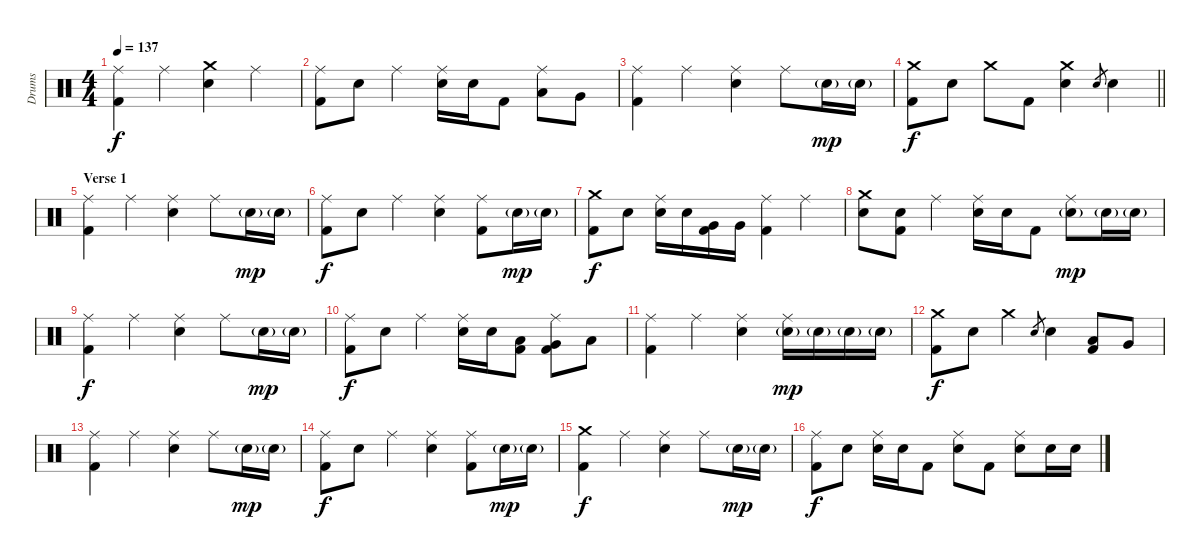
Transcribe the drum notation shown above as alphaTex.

\track ("Drums" "Drums") {instrument percussion}
\staff {score}
\articulation defaults
\ts (4 4)
\tempo 137
\clef neutral
\ks c
("Ride (middle)" "Kick (hit) 2").4{dy f} "Ride (middle)".4 ("Crash medium (hit)" "Electric Snare (hit)").4 "Ride (middle)".4 |
("Ride (middle)" "Kick (hit) 2").8 "Electric Snare (hit)".8 "Ride (middle)".4 ("Ride (middle)" "Electric Snare (hit)").16 "Electric Snare (hit)".16 "Kick (hit) 2".8 ("Ride (middle)" "Low Tom (hit)").8 "Very Low Tom (hit)".8 |
("Ride (middle)" "Kick (hit) 2").4 "Ride (middle)".4 ("Ride (middle)" "Electric Snare (hit)").4 "Ride (middle)".8 "Electric Snare (hit)"{g}.16{dy mp} "Electric Snare (hit)"{g}.16 |
\barLineRight lightlight
("Crash medium (hit)" "Kick (hit) 2").8{dy f} "Electric Snare (hit)".8 "Crash medium (hit)".8 "Kick (hit) 2".8 ("Crash medium (hit)" "Electric Snare (hit)").4 "Electric Snare (hit)".8{gr} "Electric Snare (hit)".4 |
\section ("" "Verse 1")
("Ride (middle)" "Kick (hit) 2").4 "Ride (middle)".4 ("Ride (middle)" "Electric Snare (hit)").4 "Ride (middle)".8 "Electric Snare (hit)"{g}.16{dy mp} "Electric Snare (hit)"{g}.16 |
("Ride (middle)" "Kick (hit) 2").8{dy f} "Electric Snare (hit)".8 "Ride (middle)".4 ("Ride (middle)" "Electric Snare (hit)").4 ("Ride (middle)" "Kick (hit) 2").8 "Electric Snare (hit)"{g}.16{dy mp} "Electric Snare (hit)"{g}.16 |
("Crash medium (hit)" "Kick (hit) 2").8{dy f} "Electric Snare (hit)".8 ("Ride (middle)" "Electric Snare (hit)").16 "Electric Snare (hit)".16 ("Very Low Tom (hit)" "Kick (hit) 2").16 "Very Low Tom (hit)".16 ("Ride (middle)" "Kick (hit) 2").4 "Ride (middle)".4 |
("Crash medium (hit)" "Electric Snare (hit)").8 ("Electric Snare (hit)" "Kick (hit) 2").8 "Ride (middle)".4 ("Ride (middle)" "Electric Snare (hit)").16 "Electric Snare (hit)".16 "Kick (hit) 2".8 ("Ride (middle)" "Electric Snare (hit)"{g}).8{dy mp} "Electric Snare (hit)"{g}.16 "Electric Snare (hit)"{g}.16 |
("Ride (middle)" "Kick (hit) 2").4{dy f} "Ride (middle)".4 ("Ride (middle)" "Electric Snare (hit)").4 "Ride (middle)".8 "Electric Snare (hit)"{g}.16{dy mp} "Electric Snare (hit)"{g}.16 |
("Ride (middle)" "Kick (hit) 2").8{dy f} "Electric Snare (hit)".8 "Ride (middle)".4 ("Ride (middle)" "Electric Snare (hit)").16 "Electric Snare (hit)".16 ("Low Tom (hit)" "Kick (hit) 2").8 ("Ride (middle)" "Very Low Tom (hit)" "Kick (hit) 2").8 "Low Floor Tom (hit)".8 |
("Ride (middle)" "Kick (hit) 2").4 "Ride (middle)".4 ("Ride (middle)" "Electric Snare (hit)").4 ("Ride (middle)" "Electric Snare (hit)"{g}).16{dy mp} "Electric Snare (hit)"{g}.16 "Electric Snare (hit)"{g}.16 "Electric Snare (hit)"{g}.16 |
("Crash medium (hit)" "Kick (hit) 2").8{dy f} "Electric Snare (hit)".8 "Crash medium (hit)".4 "Electric Snare (hit)".8{gr} "Electric Snare (hit)".4 ("Low Tom (hit)" "Kick (hit) 2").8 "Very Low Tom (hit)".8 |
("Ride (middle)" "Kick (hit) 2").4 "Ride (middle)".4 ("Ride (middle)" "Electric Snare (hit)").4 "Ride (middle)".8 "Electric Snare (hit)"{g}.16{dy mp} "Electric Snare (hit)"{g}.16 |
("Ride (middle)" "Kick (hit) 2").8{dy f} "Electric Snare (hit)".8 "Ride (middle)".4 ("Ride (middle)" "Electric Snare (hit)").4 ("Ride (middle)" "Kick (hit) 2").8 "Electric Snare (hit)"{g}.16{dy mp} "Electric Snare (hit)"{g}.16 |
("Crash medium (hit)" "Kick (hit) 2").4{dy f} "Ride (middle)".4 ("Ride (middle)" "Electric Snare (hit)").4 "Ride (middle)".8 "Electric Snare (hit)"{g}.16{dy mp} "Electric Snare (hit)"{g}.16 |
("Ride (middle)" "Kick (hit) 2").8{dy f} "Electric Snare (hit)".8 ("Ride (middle)" "Electric Snare (hit)").16 "Electric Snare (hit)".16 "Kick (hit) 2".8 ("Ride (middle)" "Electric Snare (hit)").8 "Kick (hit) 2".8 ("Ride (middle)" "Electric Snare (hit)").8 "Electric Snare (hit)".16 "Electric Snare (hit)".16
